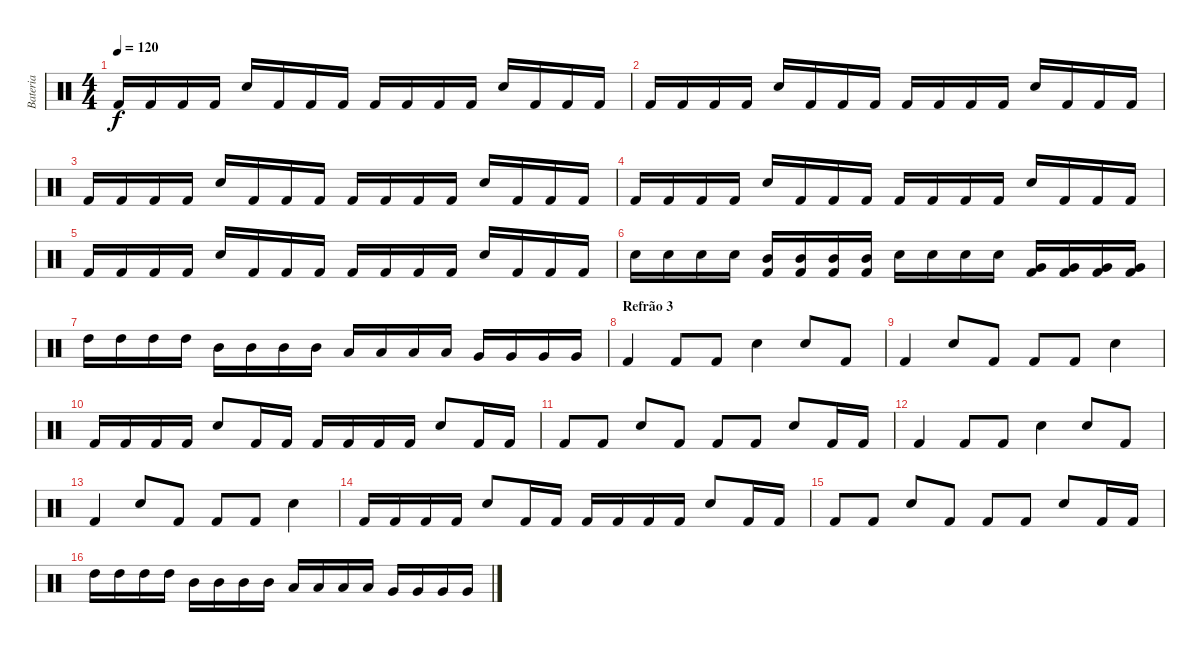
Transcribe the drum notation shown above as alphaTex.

\track ("Bateria" "Bateria") {instrument percussion}
\staff {score}
\articulation defaults
\ts (4 4)
\tempo 120
\clef neutral
\ks c "Kick (hit) 2".16{dy f} "Kick (hit) 2".16 "Kick (hit) 2".16 "Kick (hit) 2".16 "Snare (hit) 2".16 "Kick (hit) 2".16 "Kick (hit) 2".16 "Kick (hit) 2".16 "Kick (hit) 2".16 "Kick (hit) 2".16 "Kick (hit) 2".16 "Kick (hit) 2".16 "Snare (hit) 2".16 "Kick (hit) 2".16 "Kick (hit) 2".16 "Kick (hit) 2".16
|
"Kick (hit) 2".16 "Kick (hit) 2".16 "Kick (hit) 2".16 "Kick (hit) 2".16 "Snare (hit) 2".16 "Kick (hit) 2".16 "Kick (hit) 2".16 "Kick (hit) 2".16 "Kick (hit) 2".16 "Kick (hit) 2".16 "Kick (hit) 2".16 "Kick (hit) 2".16 "Snare (hit) 2".16 "Kick (hit) 2".16 "Kick (hit) 2".16 "Kick (hit) 2".16 |
"Kick (hit) 2".16 "Kick (hit) 2".16 "Kick (hit) 2".16 "Kick (hit) 2".16 "Snare (hit) 2".16 "Kick (hit) 2".16 "Kick (hit) 2".16 "Kick (hit) 2".16 "Kick (hit) 2".16 "Kick (hit) 2".16 "Kick (hit) 2".16 "Kick (hit) 2".16 "Snare (hit) 2".16 "Kick (hit) 2".16 "Kick (hit) 2".16 "Kick (hit) 2".16 |
"Kick (hit) 2".16 "Kick (hit) 2".16 "Kick (hit) 2".16 "Kick (hit) 2".16 "Snare (hit) 2".16 "Kick (hit) 2".16 "Kick (hit) 2".16 "Kick (hit) 2".16 "Kick (hit) 2".16 "Kick (hit) 2".16 "Kick (hit) 2".16 "Kick (hit) 2".16 "Snare (hit) 2".16 "Kick (hit) 2".16 "Kick (hit) 2".16 "Kick (hit) 2".16 |
"Kick (hit) 2".16 "Kick (hit) 2".16 "Kick (hit) 2".16 "Kick (hit) 2".16 "Snare (hit) 2".16 "Kick (hit) 2".16 "Kick (hit) 2".16 "Kick (hit) 2".16 "Kick (hit) 2".16 "Kick (hit) 2".16 "Kick (hit) 2".16 "Kick (hit) 2".16 "Snare (hit) 2".16 "Kick (hit) 2".16 "Kick (hit) 2".16 "Kick (hit) 2".16 |
"Snare (hit) 2".16 "Snare (hit) 2".16 "Snare (hit) 2".16 "Snare (hit) 2".16 ("Kick (hit) 2" "Mid Tom (hit)").16 ("Kick (hit) 2" "Mid Tom (hit)").16 ("Kick (hit) 2" "Mid Tom (hit)").16 ("Kick (hit) 2" "Mid Tom (hit)").16 "Snare (hit) 2".16 "Snare (hit) 2".16 "Snare (hit) 2".16 "Snare (hit) 2".16 ("Kick (hit) 2" "Very Low Tom (hit)").16 ("Kick (hit) 2" "Very Low Tom (hit)").16 ("Kick (hit) 2" "Very Low Tom (hit)").16 ("Kick (hit) 2" "Very Low Tom (hit)").16 |
"High Tom (hit)".16 "High Tom (hit)".16 "High Tom (hit)".16 "High Tom (hit)".16 "Mid Tom (hit)".16 "Mid Tom (hit)".16 "Mid Tom (hit)".16 "Mid Tom (hit)".16 "Low Tom (hit)".16 "Low Tom (hit)".16 "Low Tom (hit)".16 "Low Tom (hit)".16 "Very Low Tom (hit)".16 "Very Low Tom (hit)".16 "Very Low Tom (hit)".16 "Very Low Tom (hit)".16 |
\section ("" "Refrão 3")
"Kick (hit) 2".4 "Kick (hit) 2".8 "Kick (hit) 2".8 "Snare (hit) 2".4 "Snare (hit) 2".8 "Kick (hit) 2".8 |
"Kick (hit) 2".4 "Snare (hit) 2".8 "Kick (hit) 2".8 "Kick (hit) 2".8 "Kick (hit) 2".8 "Snare (hit) 2".4 |
"Kick (hit) 2".16 "Kick (hit) 2".16 "Kick (hit) 2".16 "Kick (hit) 2".16 "Snare (hit) 2".8 "Kick (hit) 2".16 "Kick (hit) 2".16 "Kick (hit) 2".16 "Kick (hit) 2".16 "Kick (hit) 2".16 "Kick (hit) 2".16 "Snare (hit) 2".8 "Kick (hit) 2".16 "Kick (hit) 2".16 |
"Kick (hit) 2".8 "Kick (hit) 2".8 "Snare (hit) 2".8 "Kick (hit) 2".8 "Kick (hit) 2".8 "Kick (hit) 2".8 "Snare (hit) 2".8 "Kick (hit) 2".16 "Kick (hit) 2".16 |
"Kick (hit) 2".4 "Kick (hit) 2".8 "Kick (hit) 2".8 "Snare (hit) 2".4 "Snare (hit) 2".8 "Kick (hit) 2".8 |
"Kick (hit) 2".4 "Snare (hit) 2".8 "Kick (hit) 2".8 "Kick (hit) 2".8 "Kick (hit) 2".8 "Snare (hit) 2".4 |
"Kick (hit) 2".16 "Kick (hit) 2".16 "Kick (hit) 2".16 "Kick (hit) 2".16 "Snare (hit) 2".8 "Kick (hit) 2".16 "Kick (hit) 2".16 "Kick (hit) 2".16 "Kick (hit) 2".16 "Kick (hit) 2".16 "Kick (hit) 2".16 "Snare (hit) 2".8 "Kick (hit) 2".16 "Kick (hit) 2".16 |
"Kick (hit) 2".8 "Kick (hit) 2".8 "Snare (hit) 2".8 "Kick (hit) 2".8 "Kick (hit) 2".8 "Kick (hit) 2".8 "Snare (hit) 2".8 "Kick (hit) 2".16 "Kick (hit) 2".16 |
"High Tom (hit)".16 "High Tom (hit)".16 "High Tom (hit)".16 "High Tom (hit)".16 "Mid Tom (hit)".16 "Mid Tom (hit)".16 "Mid Tom (hit)".16 "Mid Tom (hit)".16 "Low Tom (hit)".16 "Low Tom (hit)".16 "Low Tom (hit)".16 "Low Tom (hit)".16 "Very Low Tom (hit)".16 "Very Low Tom (hit)".16 "Very Low Tom (hit)".16 "Very Low Tom (hit)".16
